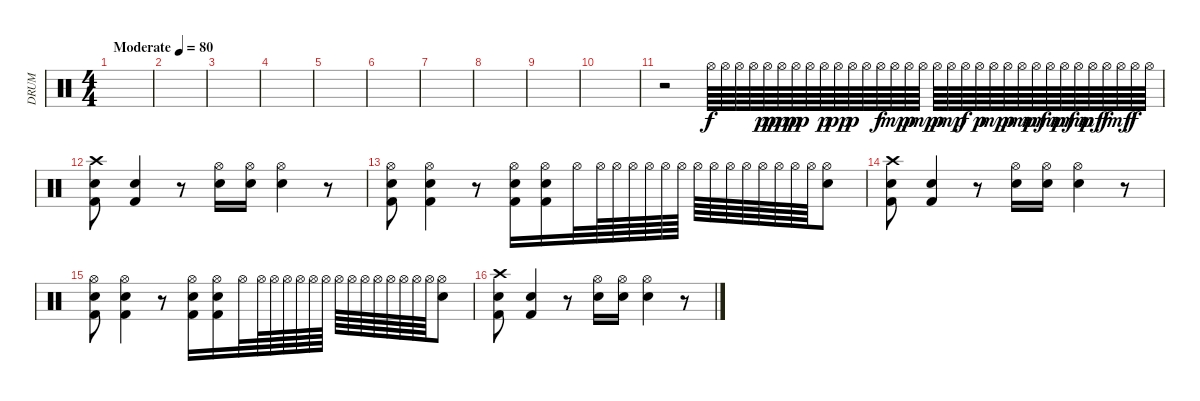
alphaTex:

\track ("DRUM" "DRUM") {instrument percussion}
\staff {score}
\articulation defaults
\ts (4 4)
\tempo (80 "Moderate")
\clef neutral
\ks c
|
|
|
|
|
|
|
|
|
|
r.2 "Hi-Hat (open)".64 "Hi-Hat (open)".64 "Hi-Hat (open)".64 "Hi-Hat (open)".64 "Hi-Hat (open)".64{dy pp} "Hi-Hat (open)".64{dy ppp} "Hi-Hat (open)".64{dy pp} "Hi-Hat (open)".64 "Hi-Hat (open)".64{dy p} "Hi-Hat (open)".64{dy pp} "Hi-Hat (open)".64{dy p} "Hi-Hat (open)".64 "Hi-Hat (open)".64{dy f} "Hi-Hat (open)".64{dy mp} "Hi-Hat (open)".64{dy p} "Hi-Hat (open)".64{dy mp} "Hi-Hat (open)".64{dy p} "Hi-Hat (open)".64{dy mp} "Hi-Hat (open)".64{dy f} "Hi-Hat (open)".64{dy p} "Hi-Hat (open)".64{dy mp} "Hi-Hat (open)".64{dy p} "Hi-Hat (open)".64{dy mp} "Hi-Hat (open)".64{dy mf} "Hi-Hat (open)".64{dy mp} "Hi-Hat (open)".64{dy mf} "Hi-Hat (open)".64{dy mp} "Hi-Hat (open)".64{dy mf} "Hi-Hat (open)".64{dy f} "Hi-Hat (open)".64{dy mf} "Hi-Hat (open)".64{dy f} "Hi-Hat (open)".64 |
("Crash high (hit)" "Snare (hit) 2" "Kick (hit) 2").8 ("Snare (hit) 2" "Kick (hit) 2").4 r.8 ("Hi-Hat (open)" "Snare (hit) 2").16 ("Hi-Hat (open)" "Snare (hit) 2").16 ("Hi-Hat (open)" "Snare (hit) 2").4 r.8 |
("Hi-Hat (open)" "Snare (hit) 2" "Kick (hit) 2").8 ("Hi-Hat (open)" "Electric Snare (hit)" "Kick (hit) 2").4 r.8 ("Hi-Hat (open)" "Snare (hit) 2" "Kick (hit) 2").16 ("Hi-Hat (open)" "Snare (hit) 2" "Kick (hit) 2").16 "Hi-Hat (open)".32 "Hi-Hat (open)".64 "Hi-Hat (open)".64 "Hi-Hat (open)".64 "Hi-Hat (open)".64 "Hi-Hat (open)".64 "Hi-Hat (open)".64 "Hi-Hat (open)".64 "Hi-Hat (open)".64 "Hi-Hat (open)".64 "Hi-Hat (open)".64 "Hi-Hat (open)".64 "Hi-Hat (open)".64 "Hi-Hat (open)".64 "Hi-Hat (open)".64 ("Hi-Hat (open)" "Snare (hit) 2").8 |
("Crash high (hit)" "Snare (hit) 2" "Kick (hit) 2").8 ("Snare (hit) 2" "Kick (hit) 2").4 r.8 ("Hi-Hat (open)" "Snare (hit) 2").16 ("Hi-Hat (open)" "Snare (hit) 2").16 ("Hi-Hat (open)" "Snare (hit) 2").4 r.8 |
("Hi-Hat (open)" "Snare (hit) 2" "Kick (hit) 2").8 ("Hi-Hat (open)" "Electric Snare (hit)" "Kick (hit) 2").4 r.8 ("Hi-Hat (open)" "Snare (hit) 2" "Kick (hit) 2").16 ("Hi-Hat (open)" "Snare (hit) 2" "Kick (hit) 2").16 "Hi-Hat (open)".32 "Hi-Hat (open)".64 "Hi-Hat (open)".64 "Hi-Hat (open)".64 "Hi-Hat (open)".64 "Hi-Hat (open)".64 "Hi-Hat (open)".64 "Hi-Hat (open)".64 "Hi-Hat (open)".64 "Hi-Hat (open)".64 "Hi-Hat (open)".64 "Hi-Hat (open)".64 "Hi-Hat (open)".64 "Hi-Hat (open)".64 "Hi-Hat (open)".64 ("Hi-Hat (open)" "Snare (hit) 2").8 |
("Crash high (hit)" "Snare (hit) 2" "Kick (hit) 2").8 ("Snare (hit) 2" "Kick (hit) 2").4 r.8 ("Hi-Hat (open)" "Snare (hit) 2").16 ("Hi-Hat (open)" "Snare (hit) 2").16 ("Hi-Hat (open)" "Snare (hit) 2").4 r.8
